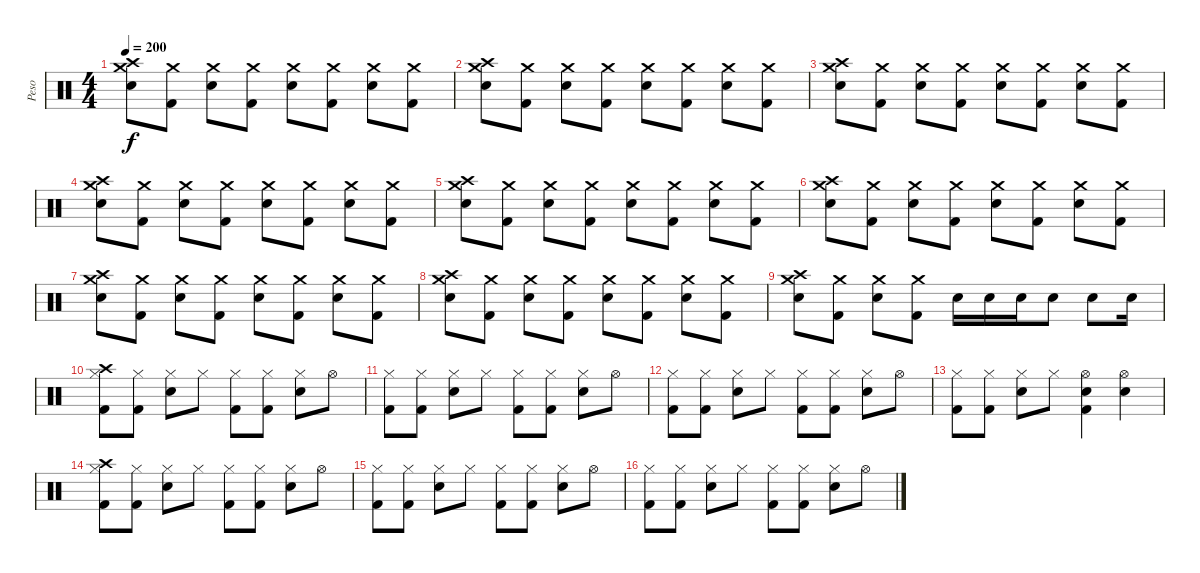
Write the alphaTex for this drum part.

\track ("Peso" "Peso") {instrument percussion}
\staff {score}
\articulation defaults
\ts (4 4)
\tempo 200
\clef neutral
\ks c
("Crash high (hit)" "Crash medium (hit)" "Snare (hit) 2").8{dy f} ("Crash medium (hit)"{x} "Kick (hit) 2").8 ("Crash medium (hit)" "Snare (hit) 2").8 ("Crash medium (hit)"{x} "Kick (hit) 2").8 ("Crash medium (hit)" "Snare (hit) 2").8 ("Crash medium (hit)"{x} "Kick (hit) 2").8 ("Crash medium (hit)" "Snare (hit) 2").8 ("Crash medium (hit)"{x} "Kick (hit) 2").8 |
("Crash high (hit)" "Crash medium (hit)" "Snare (hit) 2").8 ("Crash medium (hit)"{x} "Kick (hit) 2").8 ("Crash medium (hit)" "Snare (hit) 2").8 ("Crash medium (hit)"{x} "Kick (hit) 2").8 ("Crash medium (hit)" "Snare (hit) 2").8 ("Crash medium (hit)"{x} "Kick (hit) 2").8 ("Crash medium (hit)" "Snare (hit) 2").8 ("Crash medium (hit)"{x} "Kick (hit) 2").8 |
("Crash high (hit)" "Crash medium (hit)" "Snare (hit) 2").8 ("Crash medium (hit)"{x} "Kick (hit) 2").8 ("Crash medium (hit)" "Snare (hit) 2").8 ("Crash medium (hit)"{x} "Kick (hit) 2").8 ("Crash medium (hit)" "Snare (hit) 2").8 ("Crash medium (hit)"{x} "Kick (hit) 2").8 ("Crash medium (hit)" "Snare (hit) 2").8 ("Crash medium (hit)"{x} "Kick (hit) 2").8 |
("Crash high (hit)" "Crash medium (hit)" "Snare (hit) 2").8 ("Crash medium (hit)"{x} "Kick (hit) 2").8 ("Crash medium (hit)" "Snare (hit) 2").8 ("Crash medium (hit)"{x} "Kick (hit) 2").8 ("Crash medium (hit)" "Snare (hit) 2").8 ("Crash medium (hit)"{x} "Kick (hit) 2").8 ("Crash medium (hit)" "Snare (hit) 2").8 ("Crash medium (hit)"{x} "Kick (hit) 2").8 |
("Crash high (hit)" "Crash medium (hit)" "Snare (hit) 2").8 ("Crash medium (hit)"{x} "Kick (hit) 2").8 ("Crash medium (hit)" "Snare (hit) 2").8 ("Crash medium (hit)"{x} "Kick (hit) 2").8 ("Crash medium (hit)" "Snare (hit) 2").8 ("Crash medium (hit)"{x} "Kick (hit) 2").8 ("Crash medium (hit)" "Snare (hit) 2").8 ("Crash medium (hit)"{x} "Kick (hit) 2").8 |
("Crash high (hit)" "Crash medium (hit)" "Snare (hit) 2").8 ("Crash medium (hit)"{x} "Kick (hit) 2").8 ("Crash medium (hit)" "Snare (hit) 2").8 ("Crash medium (hit)"{x} "Kick (hit) 2").8 ("Crash medium (hit)" "Snare (hit) 2").8 ("Crash medium (hit)"{x} "Kick (hit) 2").8 ("Crash medium (hit)" "Snare (hit) 2").8 ("Crash medium (hit)"{x} "Kick (hit) 2").8 |
("Crash high (hit)" "Crash medium (hit)" "Snare (hit) 2").8 ("Crash medium (hit)"{x} "Kick (hit) 2").8 ("Crash medium (hit)" "Snare (hit) 2").8 ("Crash medium (hit)"{x} "Kick (hit) 2").8 ("Crash medium (hit)" "Snare (hit) 2").8 ("Crash medium (hit)"{x} "Kick (hit) 2").8 ("Crash medium (hit)" "Snare (hit) 2").8 ("Crash medium (hit)"{x} "Kick (hit) 2").8 |
("Crash high (hit)" "Crash medium (hit)" "Snare (hit) 2").8 ("Crash medium (hit)"{x} "Kick (hit) 2").8 ("Crash medium (hit)" "Snare (hit) 2").8 ("Crash medium (hit)"{x} "Kick (hit) 2").8 ("Crash medium (hit)" "Snare (hit) 2").8 ("Crash medium (hit)"{x} "Kick (hit) 2").8 ("Crash medium (hit)" "Snare (hit) 2").8 ("Crash medium (hit)"{x} "Kick (hit) 2").8 |
("Crash high (hit)" "Crash medium (hit)" "Snare (hit) 2").8 ("Crash medium (hit)"{x} "Kick (hit) 2").8 ("Crash medium (hit)" "Snare (hit) 2").8 ("Crash medium (hit)"{x} "Kick (hit) 2").8 "Snare (hit) 2".16 "Snare (hit) 2".16 "Snare (hit) 2".16 "Snare (hit) 2".8 "Snare (hit) 2".8 "Snare (hit) 2".16 |
("Crash high (hit)" "Hi-Hat (closed)" "Kick (hit) 2").8 ("Hi-Hat (closed)" "Kick (hit) 2").8 ("Hi-Hat (closed)" "Snare (hit) 2").8 "Hi-Hat (closed)".8 ("Hi-Hat (closed)" "Kick (hit) 2").8 ("Hi-Hat (closed)" "Kick (hit) 2").8 ("Hi-Hat (closed)" "Snare (hit) 2").8 "Hi-Hat (open)".8 |
("Hi-Hat (closed)" "Kick (hit) 2").8 ("Hi-Hat (closed)" "Kick (hit) 2").8 ("Hi-Hat (closed)" "Snare (hit) 2").8 "Hi-Hat (closed)".8 ("Hi-Hat (closed)" "Kick (hit) 2").8 ("Hi-Hat (closed)" "Kick (hit) 2").8 ("Hi-Hat (closed)" "Snare (hit) 2").8 "Hi-Hat (open)".8 |
("Hi-Hat (closed)" "Kick (hit) 2").8 ("Hi-Hat (closed)" "Kick (hit) 2").8 ("Hi-Hat (closed)" "Snare (hit) 2").8 "Hi-Hat (closed)".8 ("Hi-Hat (closed)" "Kick (hit) 2").8 ("Hi-Hat (closed)" "Kick (hit) 2").8 ("Hi-Hat (closed)" "Snare (hit) 2").8 "Hi-Hat (open)".8 |
("Hi-Hat (closed)" "Kick (hit) 2").8 ("Hi-Hat (closed)" "Kick (hit) 2").8 ("Hi-Hat (closed)" "Snare (hit) 2").8 "Hi-Hat (closed)".8 ("Hi-Hat (open)" "Snare (hit) 2" "Kick (hit) 2").4 ("Hi-Hat (open)" "Snare (hit) 2").4 |
("Crash high (hit)" "Hi-Hat (closed)" "Kick (hit) 2").8 ("Hi-Hat (closed)" "Kick (hit) 2").8 ("Hi-Hat (closed)" "Snare (hit) 2").8 "Hi-Hat (closed)".8 ("Hi-Hat (closed)" "Kick (hit) 2").8 ("Hi-Hat (closed)" "Kick (hit) 2").8 ("Hi-Hat (closed)" "Snare (hit) 2").8 "Hi-Hat (open)".8 |
("Hi-Hat (closed)" "Kick (hit) 2").8 ("Hi-Hat (closed)" "Kick (hit) 2").8 ("Hi-Hat (closed)" "Snare (hit) 2").8 "Hi-Hat (closed)".8 ("Hi-Hat (closed)" "Kick (hit) 2").8 ("Hi-Hat (closed)" "Kick (hit) 2").8 ("Hi-Hat (closed)" "Snare (hit) 2").8 "Hi-Hat (open)".8 |
("Hi-Hat (closed)" "Kick (hit) 2").8 ("Hi-Hat (closed)" "Kick (hit) 2").8 ("Hi-Hat (closed)" "Snare (hit) 2").8 "Hi-Hat (closed)".8 ("Hi-Hat (closed)" "Kick (hit) 2").8 ("Hi-Hat (closed)" "Kick (hit) 2").8 ("Hi-Hat (closed)" "Snare (hit) 2").8 "Hi-Hat (open)".8
